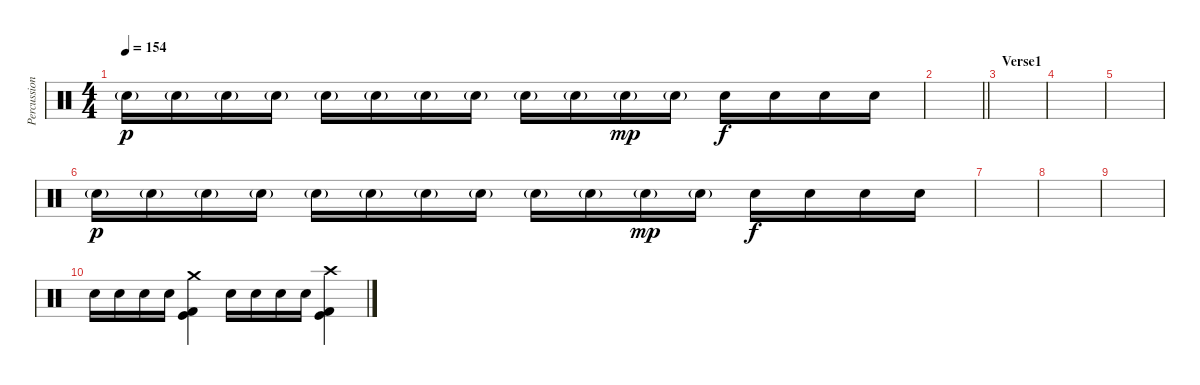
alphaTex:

\track ("Percussion" "Percussion") {instrument percussion}
\staff {score}
\articulation defaults
\ts (4 4)
\tempo 154
\clef neutral
\ks c "Snare (hit) 2"{g}.16{dy p} "Snare (hit) 2"{g}.16 "Snare (hit) 2"{g}.16 "Snare (hit) 2"{g}.16 "Snare (hit) 2"{g}.16 "Snare (hit) 2"{g}.16 "Snare (hit) 2"{g}.16 "Snare (hit) 2"{g}.16 "Snare (hit) 2"{g}.16 "Snare (hit) 2"{g}.16 "Snare (hit) 2"{g}.16{dy mp} "Snare (hit) 2"{g}.16 "Snare (hit) 2".16{dy f} "Snare (hit) 2".16 "Snare (hit) 2".16 "Snare (hit) 2".16
|
\barLineRight lightlight
|
\section ("" "Verse1")
|
|
|
"Snare (hit) 2"{g}.16{dy p} "Snare (hit) 2"{g}.16 "Snare (hit) 2"{g}.16 "Snare (hit) 2"{g}.16 "Snare (hit) 2"{g}.16 "Snare (hit) 2"{g}.16 "Snare (hit) 2"{g}.16 "Snare (hit) 2"{g}.16 "Snare (hit) 2"{g}.16 "Snare (hit) 2"{g}.16 "Snare (hit) 2"{g}.16{dy mp} "Snare (hit) 2"{g}.16 "Snare (hit) 2".16{dy f} "Snare (hit) 2".16 "Snare (hit) 2".16 "Snare (hit) 2".16 |
|
|
|
"Snare (hit) 2".16 "Snare (hit) 2".16 "Snare (hit) 2".16 "Snare (hit) 2".16 ("Crash medium (hit)" "Kick (hit) 2" "Kick (hit)").4 "Snare (hit) 2".16 "Snare (hit) 2".16 "Snare (hit) 2".16 "Snare (hit) 2".16 ("Crash high (hit)" "Kick (hit) 2" "Kick (hit)").4
